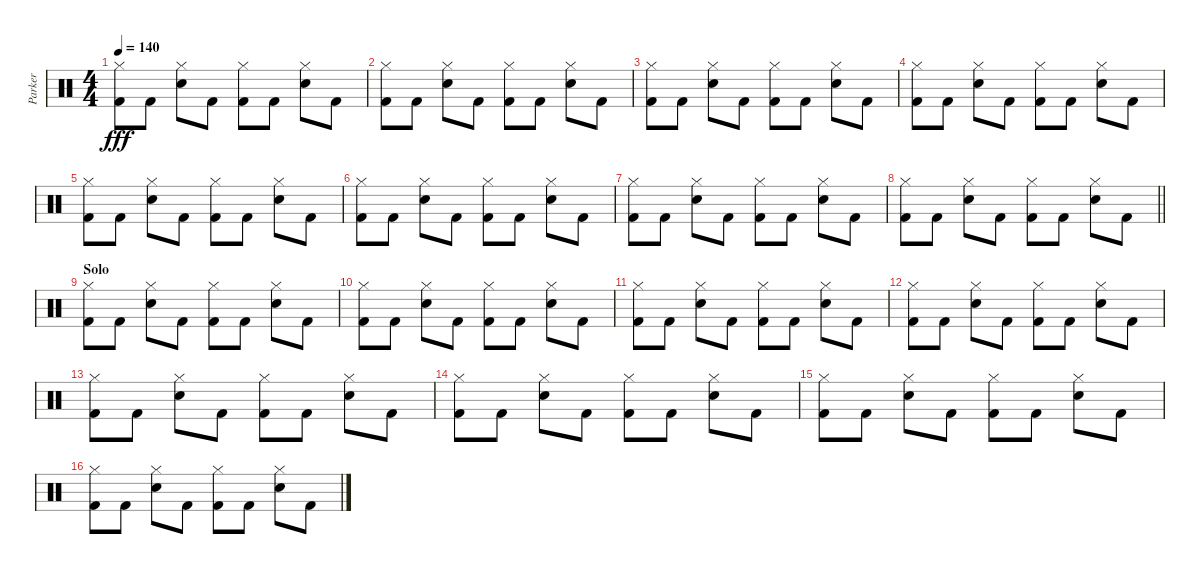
\track ("Parker" "Parker") {instrument percussion}
\staff {score}
\articulation defaults
\ts (4 4)
\tempo 140
\clef neutral
\ks c
("Kick (hit) 2" "Hi-Hat (closed)").8{dy fff} "Kick (hit) 2".8 ("Hi-Hat (closed)" "Snare (hit) 2").8 "Kick (hit) 2".8 ("Kick (hit) 2" "Hi-Hat (closed)").8 "Kick (hit) 2".8 ("Hi-Hat (closed)" "Snare (hit) 2").8 "Kick (hit) 2".8 |
("Kick (hit) 2" "Hi-Hat (closed)").8 "Kick (hit) 2".8 ("Hi-Hat (closed)" "Snare (hit) 2").8 "Kick (hit) 2".8 ("Kick (hit) 2" "Hi-Hat (closed)").8 "Kick (hit) 2".8 ("Hi-Hat (closed)" "Snare (hit) 2").8 "Kick (hit) 2".8 |
("Kick (hit) 2" "Hi-Hat (closed)").8 "Kick (hit) 2".8 ("Hi-Hat (closed)" "Snare (hit) 2").8 "Kick (hit) 2".8 ("Kick (hit) 2" "Hi-Hat (closed)").8 "Kick (hit) 2".8 ("Hi-Hat (closed)" "Snare (hit) 2").8 "Kick (hit) 2".8 |
("Kick (hit) 2" "Hi-Hat (closed)").8 "Kick (hit) 2".8 ("Hi-Hat (closed)" "Snare (hit) 2").8 "Kick (hit) 2".8 ("Kick (hit) 2" "Hi-Hat (closed)").8 "Kick (hit) 2".8 ("Hi-Hat (closed)" "Snare (hit) 2").8 "Kick (hit) 2".8 |
("Kick (hit) 2" "Hi-Hat (closed)").8 "Kick (hit) 2".8 ("Hi-Hat (closed)" "Snare (hit) 2").8 "Kick (hit) 2".8 ("Kick (hit) 2" "Hi-Hat (closed)").8 "Kick (hit) 2".8 ("Hi-Hat (closed)" "Snare (hit) 2").8 "Kick (hit) 2".8 |
("Kick (hit) 2" "Hi-Hat (closed)").8 "Kick (hit) 2".8 ("Hi-Hat (closed)" "Snare (hit) 2").8 "Kick (hit) 2".8 ("Kick (hit) 2" "Hi-Hat (closed)").8 "Kick (hit) 2".8 ("Hi-Hat (closed)" "Snare (hit) 2").8 "Kick (hit) 2".8 |
("Kick (hit) 2" "Hi-Hat (closed)").8 "Kick (hit) 2".8 ("Hi-Hat (closed)" "Snare (hit) 2").8 "Kick (hit) 2".8 ("Kick (hit) 2" "Hi-Hat (closed)").8 "Kick (hit) 2".8 ("Hi-Hat (closed)" "Snare (hit) 2").8 "Kick (hit) 2".8 |
\barLineRight lightlight
("Kick (hit) 2" "Hi-Hat (closed)").8 "Kick (hit) 2".8 ("Hi-Hat (closed)" "Snare (hit) 2").8 "Kick (hit) 2".8 ("Kick (hit) 2" "Hi-Hat (closed)").8 "Kick (hit) 2".8 ("Hi-Hat (closed)" "Snare (hit) 2").8 "Kick (hit) 2".8 |
\section ("" "Solo")
("Kick (hit) 2" "Hi-Hat (closed)").8 "Kick (hit) 2".8 ("Hi-Hat (closed)" "Snare (hit) 2").8 "Kick (hit) 2".8 ("Kick (hit) 2" "Hi-Hat (closed)").8 "Kick (hit) 2".8 ("Hi-Hat (closed)" "Snare (hit) 2").8 "Kick (hit) 2".8 |
("Kick (hit) 2" "Hi-Hat (closed)").8 "Kick (hit) 2".8 ("Hi-Hat (closed)" "Snare (hit) 2").8 "Kick (hit) 2".8 ("Kick (hit) 2" "Hi-Hat (closed)").8 "Kick (hit) 2".8 ("Hi-Hat (closed)" "Snare (hit) 2").8 "Kick (hit) 2".8 |
("Kick (hit) 2" "Hi-Hat (closed)").8 "Kick (hit) 2".8 ("Hi-Hat (closed)" "Snare (hit) 2").8 "Kick (hit) 2".8 ("Kick (hit) 2" "Hi-Hat (closed)").8 "Kick (hit) 2".8 ("Hi-Hat (closed)" "Snare (hit) 2").8 "Kick (hit) 2".8 |
("Kick (hit) 2" "Hi-Hat (closed)").8 "Kick (hit) 2".8 ("Hi-Hat (closed)" "Snare (hit) 2").8 "Kick (hit) 2".8 ("Kick (hit) 2" "Hi-Hat (closed)").8 "Kick (hit) 2".8 ("Hi-Hat (closed)" "Snare (hit) 2").8 "Kick (hit) 2".8 |
("Kick (hit) 2" "Hi-Hat (closed)").8 "Kick (hit) 2".8 ("Hi-Hat (closed)" "Snare (hit) 2").8 "Kick (hit) 2".8 ("Kick (hit) 2" "Hi-Hat (closed)").8 "Kick (hit) 2".8 ("Hi-Hat (closed)" "Snare (hit) 2").8 "Kick (hit) 2".8 |
("Kick (hit) 2" "Hi-Hat (closed)").8 "Kick (hit) 2".8 ("Hi-Hat (closed)" "Snare (hit) 2").8 "Kick (hit) 2".8 ("Kick (hit) 2" "Hi-Hat (closed)").8 "Kick (hit) 2".8 ("Hi-Hat (closed)" "Snare (hit) 2").8 "Kick (hit) 2".8 |
("Kick (hit) 2" "Hi-Hat (closed)").8 "Kick (hit) 2".8 ("Hi-Hat (closed)" "Snare (hit) 2").8 "Kick (hit) 2".8 ("Kick (hit) 2" "Hi-Hat (closed)").8 "Kick (hit) 2".8 ("Hi-Hat (closed)" "Snare (hit) 2").8 "Kick (hit) 2".8 |
("Kick (hit) 2" "Hi-Hat (closed)").8 "Kick (hit) 2".8 ("Hi-Hat (closed)" "Snare (hit) 2").8 "Kick (hit) 2".8 ("Kick (hit) 2" "Hi-Hat (closed)").8 "Kick (hit) 2".8 ("Hi-Hat (closed)" "Snare (hit) 2").8 "Kick (hit) 2".8
